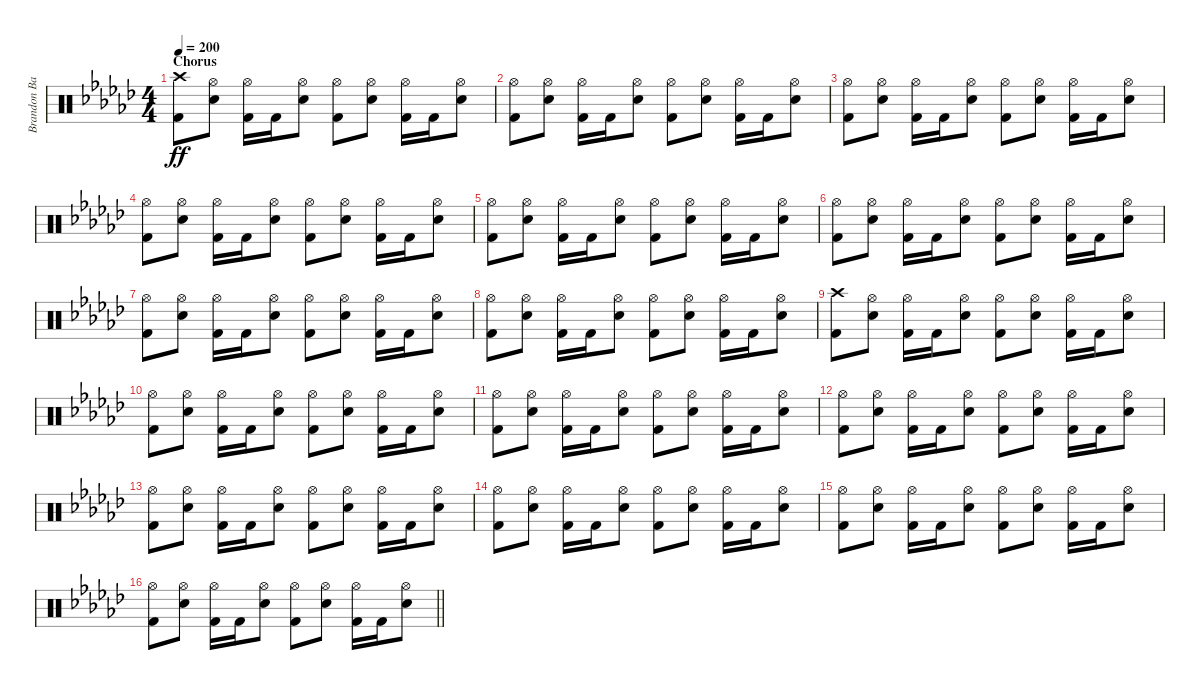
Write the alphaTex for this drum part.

\track ("Brandon Barnes - Drums" "Brandon Ba") {instrument percussion}
\staff {score}
\articulation defaults
\ts (4 4)
\section ("" "Chorus")
\tempo 200
\clef neutral
\ks ebminor
("Crash high (hit)" "Kick (hit) 2").8{dy ff} ("Snare (hit) 2" "Hi-Hat (open)").8 ("Kick (hit) 2" "Hi-Hat (open)").16 "Kick (hit) 2".16 ("Snare (hit) 2" "Hi-Hat (open)").8 ("Kick (hit) 2" "Hi-Hat (open)").8 ("Snare (hit) 2" "Hi-Hat (open)").8 ("Kick (hit) 2" "Hi-Hat (open)").16 "Kick (hit) 2".16 ("Snare (hit) 2" "Hi-Hat (open)").8 |
("Kick (hit) 2" "Hi-Hat (open)").8 ("Snare (hit) 2" "Hi-Hat (open)").8 ("Kick (hit) 2" "Hi-Hat (open)").16 "Kick (hit) 2".16 ("Snare (hit) 2" "Hi-Hat (open)").8 ("Kick (hit) 2" "Hi-Hat (open)").8 ("Snare (hit) 2" "Hi-Hat (open)").8 ("Kick (hit) 2" "Hi-Hat (open)").16 "Kick (hit) 2".16 ("Snare (hit) 2" "Hi-Hat (open)").8 |
("Kick (hit) 2" "Hi-Hat (open)").8 ("Snare (hit) 2" "Hi-Hat (open)").8 ("Kick (hit) 2" "Hi-Hat (open)").16 "Kick (hit) 2".16 ("Snare (hit) 2" "Hi-Hat (open)").8 ("Kick (hit) 2" "Hi-Hat (open)").8 ("Snare (hit) 2" "Hi-Hat (open)").8 ("Kick (hit) 2" "Hi-Hat (open)").16 "Kick (hit) 2".16 ("Snare (hit) 2" "Hi-Hat (open)").8 |
("Kick (hit) 2" "Hi-Hat (open)").8 ("Snare (hit) 2" "Hi-Hat (open)").8 ("Kick (hit) 2" "Hi-Hat (open)").16 "Kick (hit) 2".16 ("Snare (hit) 2" "Hi-Hat (open)").8 ("Kick (hit) 2" "Hi-Hat (open)").8 ("Snare (hit) 2" "Hi-Hat (open)").8 ("Kick (hit) 2" "Hi-Hat (open)").16 "Kick (hit) 2".16 ("Snare (hit) 2" "Hi-Hat (open)").8 |
("Kick (hit) 2" "Hi-Hat (open)").8 ("Snare (hit) 2" "Hi-Hat (open)").8 ("Kick (hit) 2" "Hi-Hat (open)").16 "Kick (hit) 2".16 ("Snare (hit) 2" "Hi-Hat (open)").8 ("Kick (hit) 2" "Hi-Hat (open)").8 ("Snare (hit) 2" "Hi-Hat (open)").8 ("Kick (hit) 2" "Hi-Hat (open)").16 "Kick (hit) 2".16 ("Snare (hit) 2" "Hi-Hat (open)").8 |
("Kick (hit) 2" "Hi-Hat (open)").8 ("Snare (hit) 2" "Hi-Hat (open)").8 ("Kick (hit) 2" "Hi-Hat (open)").16 "Kick (hit) 2".16 ("Snare (hit) 2" "Hi-Hat (open)").8 ("Kick (hit) 2" "Hi-Hat (open)").8 ("Snare (hit) 2" "Hi-Hat (open)").8 ("Kick (hit) 2" "Hi-Hat (open)").16 "Kick (hit) 2".16 ("Snare (hit) 2" "Hi-Hat (open)").8 |
("Kick (hit) 2" "Hi-Hat (open)").8 ("Snare (hit) 2" "Hi-Hat (open)").8 ("Kick (hit) 2" "Hi-Hat (open)").16 "Kick (hit) 2".16 ("Snare (hit) 2" "Hi-Hat (open)").8 ("Kick (hit) 2" "Hi-Hat (open)").8 ("Snare (hit) 2" "Hi-Hat (open)").8 ("Kick (hit) 2" "Hi-Hat (open)").16 "Kick (hit) 2".16 ("Snare (hit) 2" "Hi-Hat (open)").8 |
("Kick (hit) 2" "Hi-Hat (open)").8 ("Snare (hit) 2" "Hi-Hat (open)").8 ("Kick (hit) 2" "Hi-Hat (open)").16 "Kick (hit) 2".16 ("Snare (hit) 2" "Hi-Hat (open)").8 ("Kick (hit) 2" "Hi-Hat (open)").8 ("Snare (hit) 2" "Hi-Hat (open)").8 ("Kick (hit) 2" "Hi-Hat (open)").16 "Kick (hit) 2".16 ("Snare (hit) 2" "Hi-Hat (open)").8 |
("Kick (hit) 2" "Crash high (hit)").8 ("Snare (hit) 2" "Hi-Hat (open)").8 ("Kick (hit) 2" "Hi-Hat (open)").16 "Kick (hit) 2".16 ("Snare (hit) 2" "Hi-Hat (open)").8 ("Kick (hit) 2" "Hi-Hat (open)").8 ("Snare (hit) 2" "Hi-Hat (open)").8 ("Kick (hit) 2" "Hi-Hat (open)").16 "Kick (hit) 2".16 ("Snare (hit) 2" "Hi-Hat (open)").8 |
("Kick (hit) 2" "Hi-Hat (open)").8 ("Snare (hit) 2" "Hi-Hat (open)").8 ("Kick (hit) 2" "Hi-Hat (open)").16 "Kick (hit) 2".16 ("Snare (hit) 2" "Hi-Hat (open)").8 ("Kick (hit) 2" "Hi-Hat (open)").8 ("Snare (hit) 2" "Hi-Hat (open)").8 ("Kick (hit) 2" "Hi-Hat (open)").16 "Kick (hit) 2".16 ("Snare (hit) 2" "Hi-Hat (open)").8 |
("Kick (hit) 2" "Hi-Hat (open)").8 ("Snare (hit) 2" "Hi-Hat (open)").8 ("Kick (hit) 2" "Hi-Hat (open)").16 "Kick (hit) 2".16 ("Snare (hit) 2" "Hi-Hat (open)").8 ("Kick (hit) 2" "Hi-Hat (open)").8 ("Snare (hit) 2" "Hi-Hat (open)").8 ("Kick (hit) 2" "Hi-Hat (open)").16 "Kick (hit) 2".16 ("Snare (hit) 2" "Hi-Hat (open)").8 |
("Kick (hit) 2" "Hi-Hat (open)").8 ("Snare (hit) 2" "Hi-Hat (open)").8 ("Kick (hit) 2" "Hi-Hat (open)").16 "Kick (hit) 2".16 ("Snare (hit) 2" "Hi-Hat (open)").8 ("Kick (hit) 2" "Hi-Hat (open)").8 ("Snare (hit) 2" "Hi-Hat (open)").8 ("Kick (hit) 2" "Hi-Hat (open)").16 "Kick (hit) 2".16 ("Snare (hit) 2" "Hi-Hat (open)").8 |
("Kick (hit) 2" "Hi-Hat (open)").8 ("Snare (hit) 2" "Hi-Hat (open)").8 ("Kick (hit) 2" "Hi-Hat (open)").16 "Kick (hit) 2".16 ("Snare (hit) 2" "Hi-Hat (open)").8 ("Kick (hit) 2" "Hi-Hat (open)").8 ("Snare (hit) 2" "Hi-Hat (open)").8 ("Kick (hit) 2" "Hi-Hat (open)").16 "Kick (hit) 2".16 ("Snare (hit) 2" "Hi-Hat (open)").8 |
("Kick (hit) 2" "Hi-Hat (open)").8 ("Snare (hit) 2" "Hi-Hat (open)").8 ("Kick (hit) 2" "Hi-Hat (open)").16 "Kick (hit) 2".16 ("Snare (hit) 2" "Hi-Hat (open)").8 ("Kick (hit) 2" "Hi-Hat (open)").8 ("Snare (hit) 2" "Hi-Hat (open)").8 ("Kick (hit) 2" "Hi-Hat (open)").16 "Kick (hit) 2".16 ("Snare (hit) 2" "Hi-Hat (open)").8 |
("Kick (hit) 2" "Hi-Hat (open)").8 ("Snare (hit) 2" "Hi-Hat (open)").8 ("Kick (hit) 2" "Hi-Hat (open)").16 "Kick (hit) 2".16 ("Snare (hit) 2" "Hi-Hat (open)").8 ("Kick (hit) 2" "Hi-Hat (open)").8 ("Snare (hit) 2" "Hi-Hat (open)").8 ("Kick (hit) 2" "Hi-Hat (open)").16 "Kick (hit) 2".16 ("Snare (hit) 2" "Hi-Hat (open)").8 |
\barLineRight lightlight
("Kick (hit) 2" "Hi-Hat (open)").8 ("Snare (hit) 2" "Hi-Hat (open)").8 ("Kick (hit) 2" "Hi-Hat (open)").16 "Kick (hit) 2".16 ("Snare (hit) 2" "Hi-Hat (open)").8 ("Kick (hit) 2" "Hi-Hat (open)").8 ("Snare (hit) 2" "Hi-Hat (open)").8 ("Kick (hit) 2" "Hi-Hat (open)").16 "Kick (hit) 2".16 ("Snare (hit) 2" "Hi-Hat (open)").8
